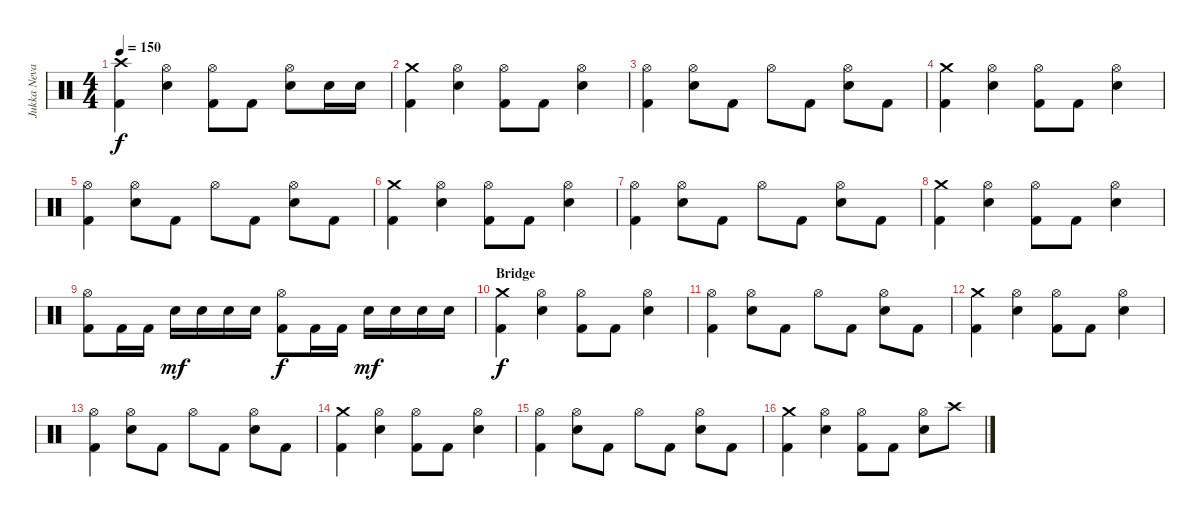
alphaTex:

\track ("Jukka Nevalainen" "Jukka Neva") {instrument percussion}
\staff {score}
\articulation defaults
\ts (4 4)
\tempo 150
\clef neutral
\ks c
("Crash high (hit)" "Kick (hit) 2").4{dy f} ("Hi-Hat (open)" "Electric Snare (hit)").4 ("Hi-Hat (open)" "Kick (hit) 2").8 "Kick (hit) 2".8 ("Hi-Hat (open)" "Electric Snare (hit)").8 "Electric Snare (hit)".16 "Electric Snare (hit)".16 |
("Crash medium (hit)" "Kick (hit) 2").4 ("Hi-Hat (open)" "Electric Snare (hit)").4 ("Hi-Hat (open)" "Kick (hit) 2").8 "Kick (hit) 2".8 ("Hi-Hat (open)" "Electric Snare (hit)").4 |
("Hi-Hat (open)" "Kick (hit) 2").4 ("Hi-Hat (open)" "Electric Snare (hit)").8 "Kick (hit) 2".8 "Hi-Hat (open)".8 "Kick (hit) 2".8 ("Hi-Hat (open)" "Electric Snare (hit)").8 "Kick (hit) 2".8 |
("Crash medium (hit)" "Kick (hit) 2").4 ("Hi-Hat (open)" "Electric Snare (hit)").4 ("Hi-Hat (open)" "Kick (hit) 2").8 "Kick (hit) 2".8 ("Hi-Hat (open)" "Electric Snare (hit)").4 |
("Hi-Hat (open)" "Kick (hit) 2").4 ("Hi-Hat (open)" "Electric Snare (hit)").8 "Kick (hit) 2".8 "Hi-Hat (open)".8 "Kick (hit) 2".8 ("Hi-Hat (open)" "Electric Snare (hit)").8 "Kick (hit) 2".8 |
("Crash medium (hit)" "Kick (hit) 2").4 ("Hi-Hat (open)" "Electric Snare (hit)").4 ("Hi-Hat (open)" "Kick (hit) 2").8 "Kick (hit) 2".8 ("Hi-Hat (open)" "Electric Snare (hit)").4 |
("Hi-Hat (open)" "Kick (hit) 2").4 ("Hi-Hat (open)" "Electric Snare (hit)").8 "Kick (hit) 2".8 "Hi-Hat (open)".8 "Kick (hit) 2".8 ("Hi-Hat (open)" "Electric Snare (hit)").8 "Kick (hit) 2".8 |
("Crash medium (hit)" "Kick (hit) 2").4 ("Hi-Hat (open)" "Electric Snare (hit)").4 ("Hi-Hat (open)" "Kick (hit) 2").8 "Kick (hit) 2".8 ("Hi-Hat (open)" "Electric Snare (hit)").4 |
("Hi-Hat (open)" "Kick (hit) 2").8 "Kick (hit) 2".16 "Kick (hit) 2".16 "Electric Snare (hit)".16{dy mf} "Electric Snare (hit)".16 "Electric Snare (hit)".16 "Electric Snare (hit)".16 ("Hi-Hat (open)" "Kick (hit) 2").8{dy f} "Kick (hit) 2".16 "Kick (hit) 2".16 "Electric Snare (hit)".16{dy mf} "Electric Snare (hit)".16 "Electric Snare (hit)".16 "Electric Snare (hit)".16 |
\section ("" "Bridge")
("Crash medium (hit)" "Kick (hit) 2").4{dy f} ("Hi-Hat (open)" "Electric Snare (hit)").4 ("Hi-Hat (open)" "Kick (hit) 2").8 "Kick (hit) 2".8 ("Hi-Hat (open)" "Electric Snare (hit)").4 |
("Hi-Hat (open)" "Kick (hit) 2").4 ("Hi-Hat (open)" "Electric Snare (hit)").8 "Kick (hit) 2".8 "Hi-Hat (open)".8 "Kick (hit) 2".8 ("Hi-Hat (open)" "Electric Snare (hit)").8 "Kick (hit) 2".8 |
("Crash medium (hit)" "Kick (hit) 2").4 ("Hi-Hat (open)" "Electric Snare (hit)").4 ("Hi-Hat (open)" "Kick (hit) 2").8 "Kick (hit) 2".8 ("Hi-Hat (open)" "Electric Snare (hit)").4 |
("Hi-Hat (open)" "Kick (hit) 2").4 ("Hi-Hat (open)" "Electric Snare (hit)").8 "Kick (hit) 2".8 "Hi-Hat (open)".8 "Kick (hit) 2".8 ("Hi-Hat (open)" "Electric Snare (hit)").8 "Kick (hit) 2".8 |
("Crash medium (hit)" "Kick (hit) 2").4 ("Hi-Hat (open)" "Electric Snare (hit)").4 ("Hi-Hat (open)" "Kick (hit) 2").8 "Kick (hit) 2".8 ("Hi-Hat (open)" "Electric Snare (hit)").4 |
("Hi-Hat (open)" "Kick (hit) 2").4 ("Hi-Hat (open)" "Electric Snare (hit)").8 "Kick (hit) 2".8 "Hi-Hat (open)".8 "Kick (hit) 2".8 ("Hi-Hat (open)" "Electric Snare (hit)").8 "Kick (hit) 2".8 |
("Crash medium (hit)" "Kick (hit) 2").4 ("Hi-Hat (open)" "Electric Snare (hit)").4 ("Hi-Hat (open)" "Kick (hit) 2").8 "Kick (hit) 2".8 ("Hi-Hat (open)" "Electric Snare (hit)").8 "Crash high (hit)".8
